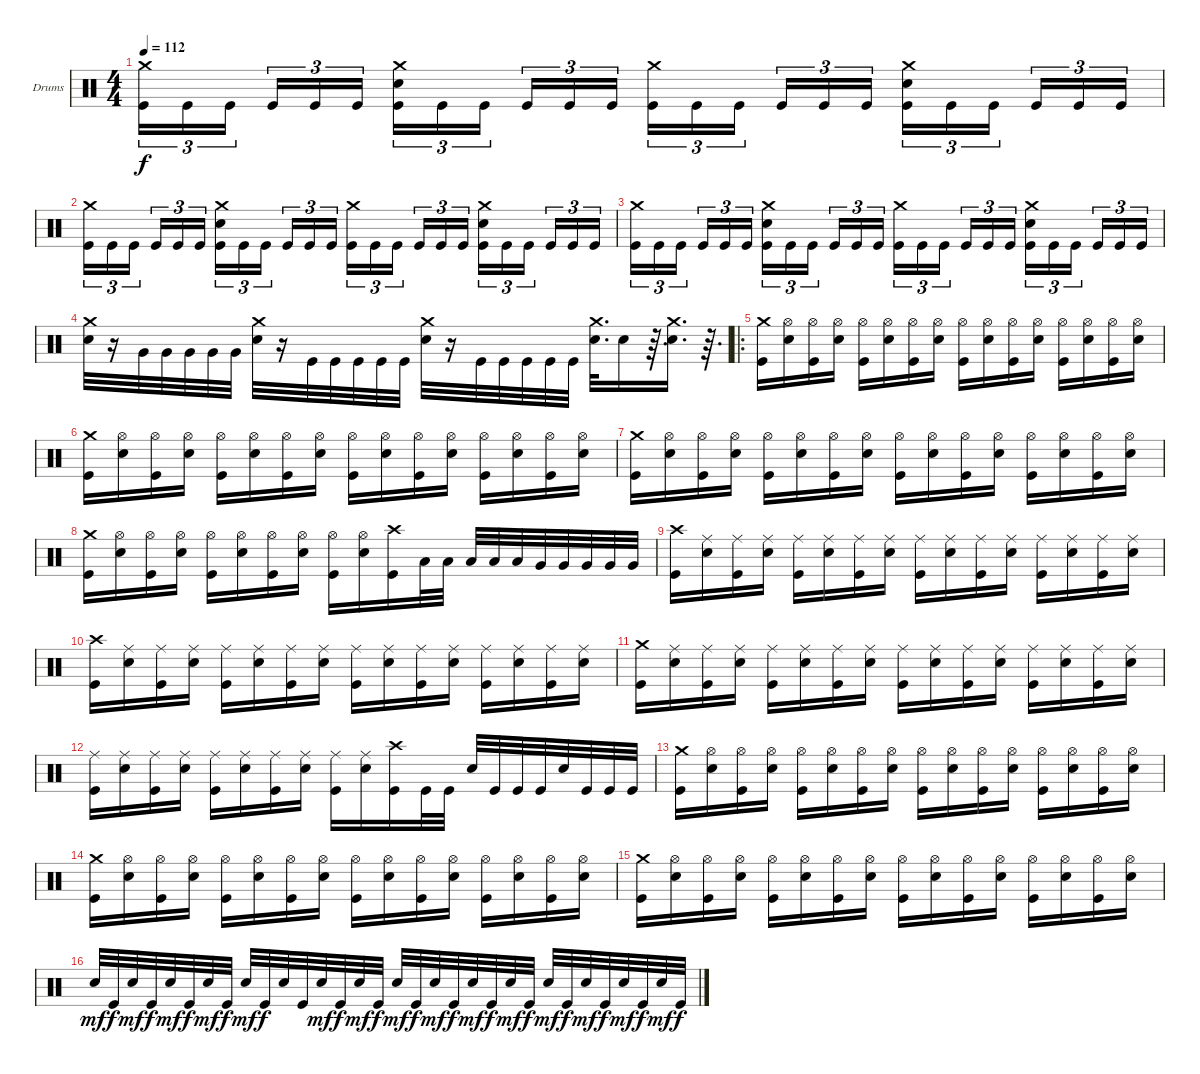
\bracketExtendMode groupsimilarinstruments
\firstSystemTrackNameOrientation horizontal
\otherSystemsTrackNameOrientation horizontal
\track ("Drumkit" "Drums") {instrument percussion}
\staff {score}
\articulation defaults
\ts (4 4)
\tempo 112
\clef neutral
\ks c
("Crash medium (hit)" "Kick (hit)").16{tu (3 2) dy f} "Kick (hit)".16{tu (3 2)} "Kick (hit)".16{tu (3 2)} "Kick (hit)".16{tu (3 2)} "Kick (hit)".16{tu (3 2)} "Kick (hit)".16{tu (3 2)} ("Crash medium (hit)" "Snare (hit) 2" "Kick (hit)").16{tu (3 2)} "Kick (hit)".16{tu (3 2)} "Kick (hit)".16{tu (3 2)} "Kick (hit)".16{tu (3 2)} "Kick (hit)".16{tu (3 2)} "Kick (hit)".16{tu (3 2)} ("Crash medium (hit)" "Kick (hit)").16{tu (3 2)} "Kick (hit)".16{tu (3 2)} "Kick (hit)".16{tu (3 2)} "Kick (hit)".16{tu (3 2)} "Kick (hit)".16{tu (3 2)} "Kick (hit)".16{tu (3 2)} ("Crash medium (hit)" "Snare (hit) 2" "Kick (hit)").16{tu (3 2)} "Kick (hit)".16{tu (3 2)} "Kick (hit)".16{tu (3 2)} "Kick (hit)".16{tu (3 2)} "Kick (hit)".16{tu (3 2)} "Kick (hit)".16{tu (3 2)} |
("Crash medium (hit)" "Kick (hit)").16{tu (3 2)} "Kick (hit)".16{tu (3 2)} "Kick (hit)".16{tu (3 2)} "Kick (hit)".16{tu (3 2)} "Kick (hit)".16{tu (3 2)} "Kick (hit)".16{tu (3 2)} ("Crash medium (hit)" "Snare (hit) 2" "Kick (hit)").16{tu (3 2)} "Kick (hit)".16{tu (3 2)} "Kick (hit)".16{tu (3 2)} "Kick (hit)".16{tu (3 2)} "Kick (hit)".16{tu (3 2)} "Kick (hit)".16{tu (3 2)} ("Crash medium (hit)" "Kick (hit)").16{tu (3 2)} "Kick (hit)".16{tu (3 2)} "Kick (hit)".16{tu (3 2)} "Kick (hit)".16{tu (3 2)} "Kick (hit)".16{tu (3 2)} "Kick (hit)".16{tu (3 2)} ("Crash medium (hit)" "Snare (hit) 2" "Kick (hit)").16{tu (3 2)} "Kick (hit)".16{tu (3 2)} "Kick (hit)".16{tu (3 2)} "Kick (hit)".16{tu (3 2)} "Kick (hit)".16{tu (3 2)} "Kick (hit)".16{tu (3 2)} |
("Crash medium (hit)" "Kick (hit)").16{tu (3 2)} "Kick (hit)".16{tu (3 2)} "Kick (hit)".16{tu (3 2)} "Kick (hit)".16{tu (3 2)} "Kick (hit)".16{tu (3 2)} "Kick (hit)".16{tu (3 2)} ("Crash medium (hit)" "Snare (hit) 2" "Kick (hit)").16{tu (3 2)} "Kick (hit)".16{tu (3 2)} "Kick (hit)".16{tu (3 2)} "Kick (hit)".16{tu (3 2)} "Kick (hit)".16{tu (3 2)} "Kick (hit)".16{tu (3 2)} ("Crash medium (hit)" "Kick (hit)").16{tu (3 2)} "Kick (hit)".16{tu (3 2)} "Kick (hit)".16{tu (3 2)} "Kick (hit)".16{tu (3 2)} "Kick (hit)".16{tu (3 2)} "Kick (hit)".16{tu (3 2)} ("Crash medium (hit)" "Snare (hit) 2" "Kick (hit)").16{tu (3 2)} "Kick (hit)".16{tu (3 2)} "Kick (hit)".16{tu (3 2)} "Kick (hit)".16{tu (3 2)} "Kick (hit)".16{tu (3 2)} "Kick (hit)".16{tu (3 2)} |
("Crash medium (hit)" "Snare (hit) 2").32 r.16 "Very Low Tom (hit)".32 "Very Low Tom (hit)".32 "Very Low Tom (hit)".32 "Very Low Tom (hit)".32 "Very Low Tom (hit)".32 ("Crash medium (hit)" "Snare (hit) 2").32 r.16 "Kick (hit)".32 "Kick (hit)".32 "Kick (hit)".32 "Kick (hit)".32 "Kick (hit)".32 ("Crash medium (hit)" "Snare (hit) 2").32 r.16 "Kick (hit)".32 "Kick (hit)".32 "Kick (hit)".32 "Kick (hit)".32 "Kick (hit)".32 ("Crash medium (hit)" "Snare (hit) 2").32{d} "Snare (hit) 2".16 r.64{d} ("Crash medium (hit)" "Snare (hit) 2").16{d} r.64{d} |
\ro
("Crash medium (hit)" "Kick (hit)").16 ("Hi-Hat (open)" "Snare (hit) 2").16 ("Hi-Hat (open)" "Kick (hit)").16 ("Hi-Hat (open)" "Snare (hit) 2").16 ("Hi-Hat (open)" "Kick (hit)").16 ("Hi-Hat (open)" "Snare (hit) 2").16 ("Hi-Hat (open)" "Kick (hit)").16 ("Hi-Hat (open)" "Snare (hit) 2").16 ("Hi-Hat (open)" "Kick (hit)").16 ("Hi-Hat (open)" "Snare (hit) 2").16 ("Hi-Hat (open)" "Kick (hit)").16 ("Hi-Hat (open)" "Snare (hit) 2").16 ("Hi-Hat (open)" "Kick (hit)").16 ("Hi-Hat (open)" "Snare (hit) 2").16 ("Hi-Hat (open)" "Kick (hit)").16 ("Hi-Hat (open)" "Snare (hit) 2").16 |
("Crash medium (hit)" "Kick (hit)").16 ("Hi-Hat (open)" "Snare (hit) 2").16 ("Hi-Hat (open)" "Kick (hit)").16 ("Hi-Hat (open)" "Snare (hit) 2").16 ("Hi-Hat (open)" "Kick (hit)").16 ("Hi-Hat (open)" "Snare (hit) 2").16 ("Hi-Hat (open)" "Kick (hit)").16 ("Hi-Hat (open)" "Snare (hit) 2").16 ("Hi-Hat (open)" "Kick (hit)").16 ("Hi-Hat (open)" "Snare (hit) 2").16 ("Hi-Hat (open)" "Kick (hit)").16 ("Hi-Hat (open)" "Snare (hit) 2").16 ("Hi-Hat (open)" "Kick (hit)").16 ("Hi-Hat (open)" "Snare (hit) 2").16 ("Hi-Hat (open)" "Kick (hit)").16 ("Hi-Hat (open)" "Snare (hit) 2").16 |
("Crash medium (hit)" "Kick (hit)").16 ("Hi-Hat (open)" "Snare (hit) 2").16 ("Hi-Hat (open)" "Kick (hit)").16 ("Hi-Hat (open)" "Snare (hit) 2").16 ("Hi-Hat (open)" "Kick (hit)").16 ("Hi-Hat (open)" "Snare (hit) 2").16 ("Hi-Hat (open)" "Kick (hit)").16 ("Hi-Hat (open)" "Snare (hit) 2").16 ("Hi-Hat (open)" "Kick (hit)").16 ("Hi-Hat (open)" "Snare (hit) 2").16 ("Hi-Hat (open)" "Kick (hit)").16 ("Hi-Hat (open)" "Snare (hit) 2").16 ("Hi-Hat (open)" "Kick (hit)").16 ("Hi-Hat (open)" "Snare (hit) 2").16 ("Hi-Hat (open)" "Kick (hit)").16 ("Hi-Hat (open)" "Snare (hit) 2").16 |
("Crash medium (hit)" "Kick (hit)").16 ("Hi-Hat (open)" "Snare (hit) 2").16 ("Hi-Hat (open)" "Kick (hit)").16 ("Hi-Hat (open)" "Snare (hit) 2").16 ("Hi-Hat (open)" "Kick (hit)").16 ("Hi-Hat (open)" "Snare (hit) 2").16 ("Hi-Hat (open)" "Kick (hit)").16 ("Hi-Hat (open)" "Snare (hit) 2").16 ("Hi-Hat (open)" "Kick (hit)").16 ("Hi-Hat (open)" "Snare (hit) 2").16 ("Crash high (hit)" "Kick (hit)").16 "Low Tom (hit)".32 "Low Tom (hit)".32 "Low Tom (hit)".32 "Low Tom (hit)".32 "Low Tom (hit)".32 "Very Low Tom (hit)".32 "Very Low Tom (hit)".32 "Very Low Tom (hit)".32 "Very Low Tom (hit)".32 "Very Low Tom (hit)".32 |
("Crash high (hit)" "Kick (hit)").16 ("Ride (middle)" "Snare (hit) 2").16 ("Ride (middle)" "Kick (hit)").16 ("Ride (middle)" "Snare (hit) 2").16 ("Ride (middle)" "Kick (hit)").16 ("Ride (middle)" "Snare (hit) 2").16 ("Ride (middle)" "Kick (hit)").16 ("Ride (middle)" "Snare (hit) 2").16 ("Ride (middle)" "Kick (hit)").16 ("Ride (middle)" "Snare (hit) 2").16 ("Ride (middle)" "Kick (hit)").16 ("Ride (middle)" "Snare (hit) 2").16 ("Ride (middle)" "Kick (hit)").16 ("Ride (middle)" "Snare (hit) 2").16 ("Ride (middle)" "Kick (hit)").16 ("Ride (middle)" "Snare (hit) 2").16 |
("Crash high (hit)" "Kick (hit)").16 ("Ride (middle)" "Snare (hit) 2").16 ("Ride (middle)" "Kick (hit)").16 ("Ride (middle)" "Snare (hit) 2").16 ("Ride (middle)" "Kick (hit)").16 ("Ride (middle)" "Snare (hit) 2").16 ("Ride (middle)" "Kick (hit)").16 ("Ride (middle)" "Snare (hit) 2").16 ("Ride (middle)" "Kick (hit)").16 ("Ride (middle)" "Snare (hit) 2").16 ("Ride (middle)" "Kick (hit)").16 ("Ride (middle)" "Snare (hit) 2").16 ("Ride (middle)" "Kick (hit)").16 ("Ride (middle)" "Snare (hit) 2").16 ("Ride (middle)" "Kick (hit)").16 ("Ride (middle)" "Snare (hit) 2").16 |
("Crash medium (hit)" "Kick (hit)").16 ("Ride (middle)" "Snare (hit) 2").16 ("Ride (middle)" "Kick (hit)").16 ("Ride (middle)" "Snare (hit) 2").16 ("Ride (middle)" "Kick (hit)").16 ("Ride (middle)" "Snare (hit) 2").16 ("Ride (middle)" "Kick (hit)").16 ("Ride (middle)" "Snare (hit) 2").16 ("Ride (middle)" "Kick (hit)").16 ("Ride (middle)" "Snare (hit) 2").16 ("Ride (middle)" "Kick (hit)").16 ("Ride (middle)" "Snare (hit) 2").16 ("Ride (middle)" "Kick (hit)").16 ("Ride (middle)" "Snare (hit) 2").16 ("Ride (middle)" "Kick (hit)").16 ("Ride (middle)" "Snare (hit) 2").16 |
("Ride (middle)" "Kick (hit)").16 ("Ride (middle)" "Snare (hit) 2").16 ("Ride (middle)" "Kick (hit)").16 ("Ride (middle)" "Snare (hit) 2").16 ("Ride (middle)" "Kick (hit)").16 ("Ride (middle)" "Snare (hit) 2").16 ("Ride (middle)" "Kick (hit)").16 ("Ride (middle)" "Snare (hit) 2").16 ("Ride (middle)" "Kick (hit)").16 ("Ride (middle)" "Snare (hit) 2").16 ("Crash high (hit)" "Kick (hit)").16 "Kick (hit)".32 "Kick (hit)".32 "Snare (hit) 2".32 "Kick (hit)".32 "Kick (hit)".32 "Kick (hit)".32 "Snare (hit) 2".32 "Kick (hit)".32 "Kick (hit)".32 "Kick (hit)".32 |
("Crash medium (hit)" "Kick (hit)").16 ("Hi-Hat (open)" "Snare (hit) 2").16 ("Hi-Hat (open)" "Kick (hit)").16 ("Hi-Hat (open)" "Snare (hit) 2").16 ("Hi-Hat (open)" "Kick (hit)").16 ("Hi-Hat (open)" "Snare (hit) 2").16 ("Hi-Hat (open)" "Kick (hit)").16 ("Hi-Hat (open)" "Snare (hit) 2").16 ("Hi-Hat (open)" "Kick (hit)").16 ("Hi-Hat (open)" "Snare (hit) 2").16 ("Hi-Hat (open)" "Kick (hit)").16 ("Hi-Hat (open)" "Snare (hit) 2").16 ("Hi-Hat (open)" "Kick (hit)").16 ("Hi-Hat (open)" "Snare (hit) 2").16 ("Hi-Hat (open)" "Kick (hit)").16 ("Hi-Hat (open)" "Snare (hit) 2").16 |
("Crash medium (hit)" "Kick (hit)").16 ("Hi-Hat (open)" "Snare (hit) 2").16 ("Hi-Hat (open)" "Kick (hit)").16 ("Hi-Hat (open)" "Snare (hit) 2").16 ("Hi-Hat (open)" "Kick (hit)").16 ("Hi-Hat (open)" "Snare (hit) 2").16 ("Hi-Hat (open)" "Kick (hit)").16 ("Hi-Hat (open)" "Snare (hit) 2").16 ("Hi-Hat (open)" "Kick (hit)").16 ("Hi-Hat (open)" "Snare (hit) 2").16 ("Hi-Hat (open)" "Kick (hit)").16 ("Hi-Hat (open)" "Snare (hit) 2").16 ("Hi-Hat (open)" "Kick (hit)").16 ("Hi-Hat (open)" "Snare (hit) 2").16 ("Hi-Hat (open)" "Kick (hit)").16 ("Hi-Hat (open)" "Snare (hit) 2").16 |
("Crash medium (hit)" "Kick (hit)").16 ("Hi-Hat (open)" "Snare (hit) 2").16 ("Hi-Hat (open)" "Kick (hit)").16 ("Hi-Hat (open)" "Snare (hit) 2").16 ("Hi-Hat (open)" "Kick (hit)").16 ("Hi-Hat (open)" "Snare (hit) 2").16 ("Hi-Hat (open)" "Kick (hit)").16 ("Hi-Hat (open)" "Snare (hit) 2").16 ("Hi-Hat (open)" "Kick (hit)").16 ("Hi-Hat (open)" "Snare (hit) 2").16 ("Hi-Hat (open)" "Kick (hit)").16 ("Hi-Hat (open)" "Snare (hit) 2").16 ("Hi-Hat (open)" "Kick (hit)").16 ("Hi-Hat (open)" "Snare (hit) 2").16 ("Hi-Hat (open)" "Kick (hit)").16 ("Hi-Hat (open)" "Snare (hit) 2").16 |
"Snare (hit) 2".32{dy mf} "Kick (hit)".32{dy f} "Snare (hit) 2".32{dy mf} "Kick (hit)".32{dy f} "Snare (hit) 2".32{dy mf} "Kick (hit)".32{dy f} "Snare (hit) 2".32{dy mf} "Kick (hit)".32{dy f} "Snare (hit) 2".32{dy mf} "Kick (hit)".32{dy f} "Snare (hit) 2".32 "Kick (hit)".32 "Snare (hit) 2".32{dy mf} "Kick (hit)".32{dy f} "Snare (hit) 2".32{dy mf} "Kick (hit)".32{dy f} "Snare (hit) 2".32{dy mf} "Kick (hit)".32{dy f} "Snare (hit) 2".32{dy mf} "Kick (hit)".32{dy f} "Snare (hit) 2".32{dy mf} "Kick (hit)".32{dy f} "Snare (hit) 2".32{dy mf} "Kick (hit)".32{dy f} "Snare (hit) 2".32{dy mf} "Kick (hit)".32{dy f} "Snare (hit) 2".32{dy mf} "Kick (hit)".32{dy f} "Snare (hit) 2".32{dy mf} "Kick (hit)".32{dy f} "Snare (hit) 2".32{dy mf} "Kick (hit)".32{dy f}
